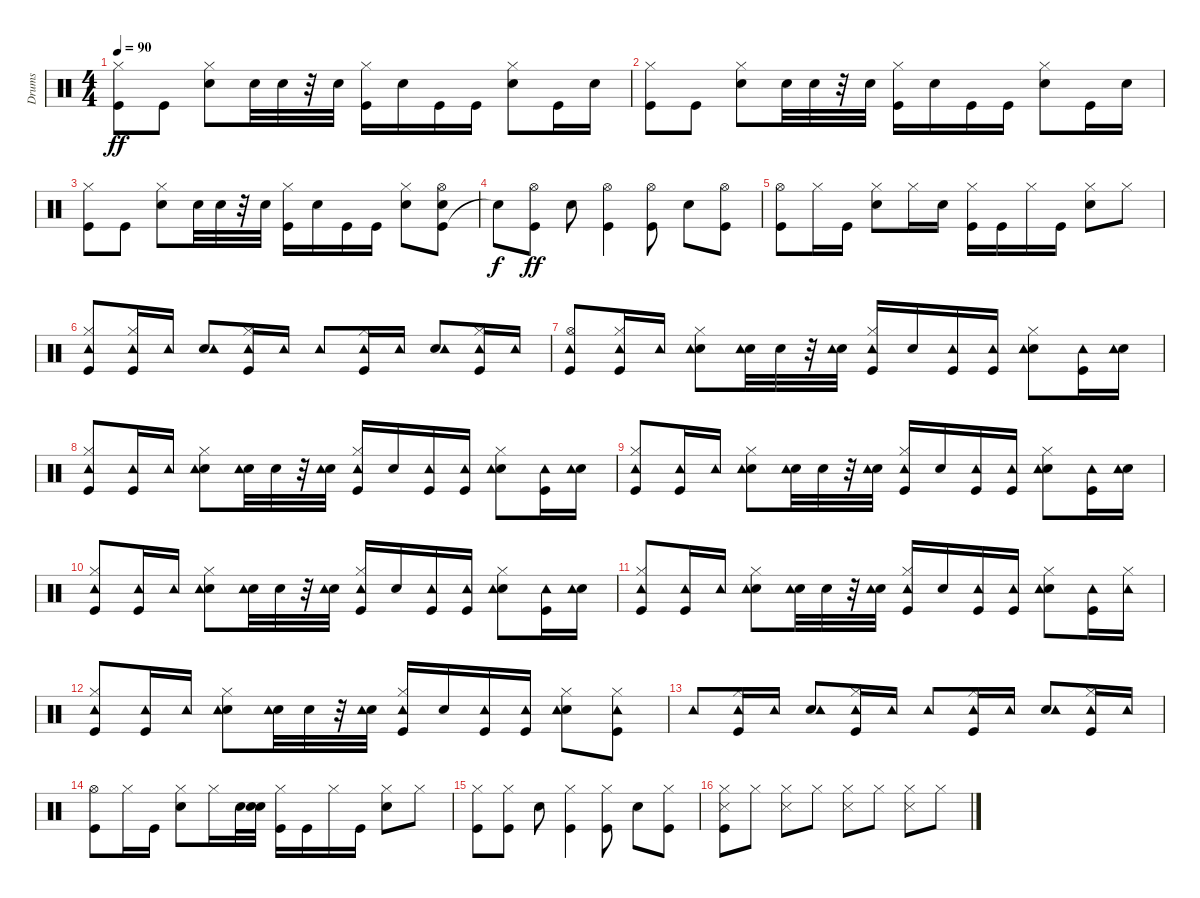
\track ("Drums" "Drums") {instrument percussion}
\staff {score}
\articulation defaults
\ts (4 4)
\tempo 90
\clef neutral
\ks c
("Kick (hit)" "Hi-Hat (closed)").8{dy ff} "Kick (hit)".8 ("Snare (hit) 2" "Hi-Hat (closed)").8 "Snare (hit) 2".32 "Snare (hit) 2".32 r.32 "Snare (hit) 2".32 ("Kick (hit)" "Hi-Hat (closed)").16 "Snare (hit) 2".16 "Kick (hit)".16 "Kick (hit)".16 ("Snare (hit) 2" "Hi-Hat (closed)").8 "Kick (hit)".16 "Snare (hit) 2".16 |
("Kick (hit)" "Hi-Hat (closed)").8 "Kick (hit)".8 ("Snare (hit) 2" "Hi-Hat (closed)").8 "Snare (hit) 2".32 "Snare (hit) 2".32 r.32 "Snare (hit) 2".32 ("Kick (hit)" "Hi-Hat (closed)").16 "Snare (hit) 2".16 "Kick (hit)".16 "Kick (hit)".16 ("Snare (hit) 2" "Hi-Hat (closed)").8 "Kick (hit)".16 "Snare (hit) 2".16 |
("Kick (hit)" "Hi-Hat (closed)").8 "Kick (hit)".8 ("Snare (hit) 2" "Hi-Hat (closed)").8 "Snare (hit) 2".32 "Snare (hit) 2".32 r.32 "Snare (hit) 2".32 ("Kick (hit)" "Hi-Hat (closed)").16 "Snare (hit) 2".16 "Kick (hit)".16 "Kick (hit)".16 ("Snare (hit) 2" "Hi-Hat (closed)").8 ("Kick (hit)" "Snare (hit) 2" "Hi-Hat (open)").8 |
"Snare (hit)"{t}.8{dy f} ("Kick (hit)" "Hi-Hat (open)").8{dy ff} "Snare (hit) 2".8 ("Kick (hit)" "Hi-Hat (open)").4 ("Kick (hit)" "Hi-Hat (open)").8 "Snare (hit) 2".8 ("Kick (hit)" "Hi-Hat (open)").8 |
("Kick (hit)" "Hi-Hat (open)").8 "Hi-Hat (closed)".16 "Kick (hit)".16 ("Snare (hit) 2" "Hi-Hat (closed)").8 "Hi-Hat (closed)".16 "Snare (hit) 2".16 ("Kick (hit)" "Hi-Hat (closed)").16 "Kick (hit)".16 "Hi-Hat (closed)".16 "Kick (hit)".16 ("Snare (hit) 2" "Hi-Hat (closed)").8 "Hi-Hat (closed)".8 |
("Kick (hit)" "Hi-Hat (closed)" "Tambourine (hit)").8 ("Kick (hit)" "Hi-Hat (closed)" "Tambourine (hit)").16 "Tambourine (hit)".16 ("Snare (hit) 2" "Tambourine (hit)").8 ("Kick (hit)" "Hi-Hat (closed)" "Tambourine (hit)").16 "Tambourine (hit)".16 "Tambourine (hit)".8 ("Kick (hit)" "Hi-Hat (closed)" "Tambourine (hit)").16 "Tambourine (hit)".16 ("Snare (hit) 2" "Tambourine (hit)").8 ("Kick (hit)" "Hi-Hat (closed)" "Tambourine (hit)").16 "Tambourine (hit)".16 |
("Kick (hit)" "Hi-Hat (open)" "Tambourine (hit)").8 ("Kick (hit)" "Hi-Hat (closed)" "Tambourine (hit)").16 "Tambourine (hit)".16 ("Snare (hit) 2" "Hi-Hat (closed)" "Tambourine (hit)").8 ("Snare (hit) 2" "Tambourine (hit)").32 "Snare (hit) 2".32 r.32 ("Snare (hit) 2" "Tambourine (hit)").32 ("Kick (hit)" "Hi-Hat (closed)" "Tambourine (hit)").16 "Snare (hit) 2".16 ("Kick (hit)" "Tambourine (hit)").16 ("Kick (hit)" "Tambourine (hit)").16 ("Snare (hit) 2" "Hi-Hat (closed)" "Tambourine (hit)").8 ("Kick (hit)" "Tambourine (hit)").16 ("Snare (hit) 2" "Tambourine (hit)").16 |
("Kick (hit)" "Hi-Hat (closed)" "Tambourine (hit)").8 ("Kick (hit)" "Tambourine (hit)").16 "Tambourine (hit)".16 ("Snare (hit) 2" "Hi-Hat (closed)" "Tambourine (hit)").8 ("Snare (hit) 2" "Tambourine (hit)").32 "Snare (hit) 2".32 r.32 ("Snare (hit) 2" "Tambourine (hit)").32 ("Kick (hit)" "Hi-Hat (closed)" "Tambourine (hit)").16 "Snare (hit) 2".16 ("Kick (hit)" "Tambourine (hit)").16 ("Kick (hit)" "Tambourine (hit)").16 ("Snare (hit) 2" "Hi-Hat (closed)" "Tambourine (hit)").8 ("Kick (hit)" "Tambourine (hit)").16 ("Snare (hit) 2" "Tambourine (hit)").16 |
("Kick (hit)" "Hi-Hat (closed)" "Tambourine (hit)").8 ("Kick (hit)" "Tambourine (hit)").16 "Tambourine (hit)".16 ("Snare (hit) 2" "Hi-Hat (closed)" "Tambourine (hit)").8 ("Snare (hit) 2" "Tambourine (hit)").32 "Snare (hit) 2".32 r.32 ("Snare (hit) 2" "Tambourine (hit)").32 ("Kick (hit)" "Hi-Hat (closed)" "Tambourine (hit)").16 "Snare (hit) 2".16 ("Kick (hit)" "Tambourine (hit)").16 ("Kick (hit)" "Tambourine (hit)").16 ("Snare (hit) 2" "Hi-Hat (closed)" "Tambourine (hit)").8 ("Kick (hit)" "Tambourine (hit)").16 ("Snare (hit) 2" "Tambourine (hit)").16 |
("Kick (hit)" "Hi-Hat (closed)" "Tambourine (hit)").8 ("Kick (hit)" "Tambourine (hit)").16 "Tambourine (hit)".16 ("Snare (hit) 2" "Hi-Hat (closed)" "Tambourine (hit)").8 ("Snare (hit) 2" "Tambourine (hit)").32 "Snare (hit) 2".32 r.32 ("Snare (hit) 2" "Tambourine (hit)").32 ("Kick (hit)" "Hi-Hat (closed)" "Tambourine (hit)").16 "Snare (hit) 2".16 ("Kick (hit)" "Tambourine (hit)").16 ("Kick (hit)" "Tambourine (hit)").16 ("Snare (hit) 2" "Hi-Hat (closed)" "Tambourine (hit)").8 ("Kick (hit)" "Tambourine (hit)").16 ("Snare (hit) 2" "Tambourine (hit)").16 |
("Kick (hit)" "Hi-Hat (closed)" "Tambourine (hit)").8 ("Kick (hit)" "Tambourine (hit)").16 "Tambourine (hit)".16 ("Snare (hit) 2" "Hi-Hat (closed)" "Tambourine (hit)").8 ("Snare (hit) 2" "Tambourine (hit)").32 "Snare (hit) 2".32 r.32 ("Snare (hit) 2" "Tambourine (hit)").32 ("Kick (hit)" "Hi-Hat (closed)" "Tambourine (hit)").16 "Snare (hit) 2".16 ("Kick (hit)" "Tambourine (hit)").16 ("Kick (hit)" "Tambourine (hit)").16 ("Snare (hit) 2" "Hi-Hat (closed)" "Tambourine (hit)").8 ("Kick (hit)" "Tambourine (hit)").16 ("Hi-Hat (closed)" "Tambourine (hit)").16 |
("Kick (hit)" "Hi-Hat (closed)" "Tambourine (hit)").8 ("Kick (hit)" "Tambourine (hit)").16 "Tambourine (hit)".16 ("Snare (hit) 2" "Hi-Hat (closed)" "Tambourine (hit)").8 ("Snare (hit) 2" "Tambourine (hit)").32 "Snare (hit) 2".32 r.32 ("Snare (hit) 2" "Tambourine (hit)").32 ("Kick (hit)" "Hi-Hat (closed)" "Tambourine (hit)").16 "Snare (hit) 2".16 ("Kick (hit)" "Tambourine (hit)").16 ("Kick (hit)" "Tambourine (hit)").16 ("Snare (hit) 2" "Hi-Hat (closed)" "Tambourine (hit)").8 ("Kick (hit)" "Hi-Hat (closed)" "Tambourine (hit)").8 |
"Tambourine (hit)".8 ("Kick (hit)" "Hi-Hat (closed)" "Tambourine (hit)").16 "Tambourine (hit)".16 ("Snare (hit) 2" "Tambourine (hit)").8 ("Kick (hit)" "Hi-Hat (closed)" "Tambourine (hit)").16 "Tambourine (hit)".16 "Tambourine (hit)".8 ("Kick (hit)" "Hi-Hat (closed)" "Tambourine (hit)").16 "Tambourine (hit)".16 ("Snare (hit) 2" "Tambourine (hit)").8 ("Kick (hit)" "Hi-Hat (closed)" "Tambourine (hit)").16 "Tambourine (hit)".16 |
("Kick (hit)" "Hi-Hat (open)").8 "Hi-Hat (closed)".16 "Kick (hit)".16 ("Snare (hit) 2" "Hi-Hat (closed)").8 "Hi-Hat (closed)".16 "Snare (hit) 2".32 ("Snare (hit) 2" "Snare (hit) 2").32 ("Kick (hit)" "Hi-Hat (closed)").16 "Kick (hit)".16 "Hi-Hat (closed)".16 "Kick (hit)".16 ("Snare (hit) 2" "Hi-Hat (closed)").8 "Hi-Hat (closed)".8 |
("Kick (hit)" "Hi-Hat (closed)").8 ("Kick (hit)" "Hi-Hat (closed)").8 "Snare (hit) 2".8 ("Kick (hit)" "Hi-Hat (closed)").4 ("Kick (hit)" "Hi-Hat (closed)").8 "Snare (hit) 2".8 ("Kick (hit)" "Hi-Hat (closed)").8 |
("Kick (hit)" "Snare (side stick) 3" "Hi-Hat (closed)").8 "Hi-Hat (closed)".8 ("Snare (side stick) 3" "Hi-Hat (closed)").8 "Hi-Hat (closed)".8 ("Snare (side stick) 3" "Hi-Hat (closed)").8 "Hi-Hat (closed)".8 ("Snare (side stick) 3" "Hi-Hat (closed)").8 "Hi-Hat (closed)".8
